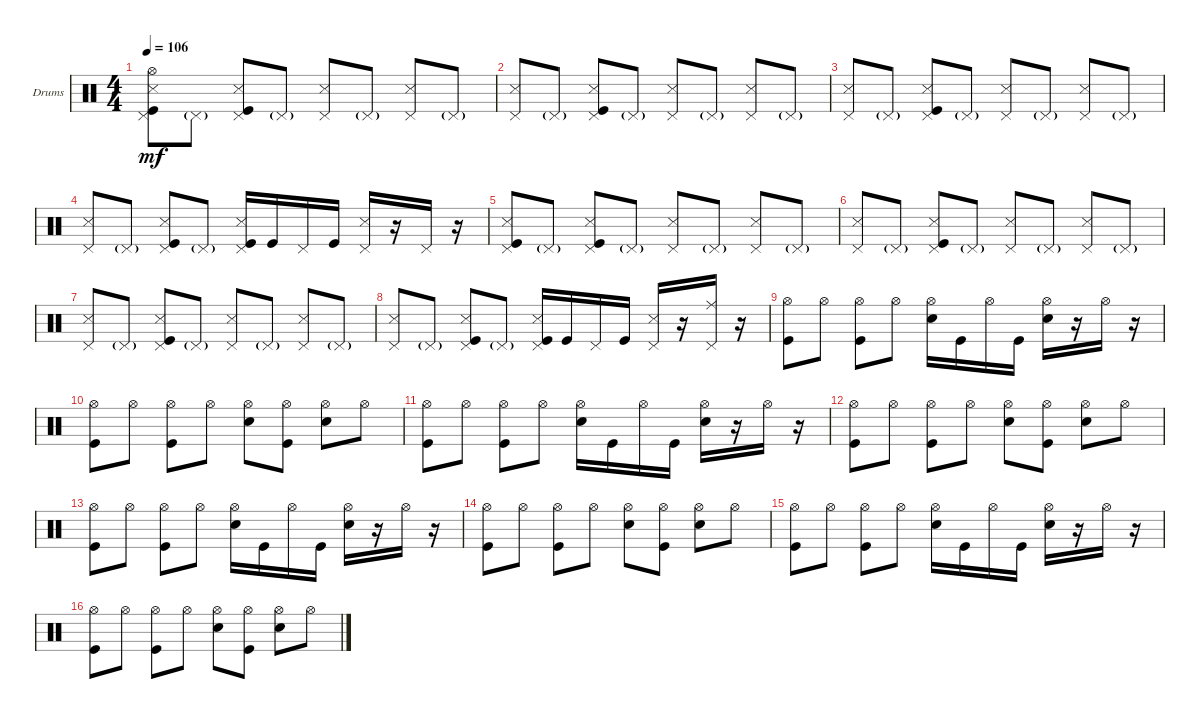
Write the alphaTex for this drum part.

\defaultSystemsLayout 4
\bracketExtendMode groupsimilarinstruments
\firstSystemTrackNameOrientation horizontal
\otherSystemsTrackNameOrientation horizontal
\track ("Drumkit" "Drums") {instrument percussion}
\staff {score}
\articulation defaults
\ts (4 4)
\tempo 106
\clef neutral
\ks c
("Snare (side stick) 3" "Kick (hit)" "Pedal Hi-Hat (hit)" "Hi-Hat (open)").8{dy mf} "Pedal Hi-Hat (hit)"{g}.8 ("Snare (side stick) 3" "Kick (hit)" "Pedal Hi-Hat (hit)").8 "Pedal Hi-Hat (hit)"{g}.8 ("Snare (side stick) 3" "Pedal Hi-Hat (hit)").8 "Pedal Hi-Hat (hit)"{g}.8 ("Snare (side stick) 3" "Pedal Hi-Hat (hit)").8 "Pedal Hi-Hat (hit)"{g}.8 |
("Snare (side stick) 3" "Pedal Hi-Hat (hit)").8 "Pedal Hi-Hat (hit)"{g}.8 ("Snare (side stick) 3" "Kick (hit)" "Pedal Hi-Hat (hit)").8 "Pedal Hi-Hat (hit)"{g}.8 ("Snare (side stick) 3" "Pedal Hi-Hat (hit)").8 "Pedal Hi-Hat (hit)"{g}.8 ("Snare (side stick) 3" "Pedal Hi-Hat (hit)").8 "Pedal Hi-Hat (hit)"{g}.8 |
("Snare (side stick) 3" "Pedal Hi-Hat (hit)").8 "Pedal Hi-Hat (hit)"{g}.8 ("Snare (side stick) 3" "Kick (hit)" "Pedal Hi-Hat (hit)").8 "Pedal Hi-Hat (hit)"{g}.8 ("Snare (side stick) 3" "Pedal Hi-Hat (hit)").8 "Pedal Hi-Hat (hit)"{g}.8 ("Snare (side stick) 3" "Pedal Hi-Hat (hit)").8 "Pedal Hi-Hat (hit)"{g}.8 |
("Snare (side stick) 3" "Pedal Hi-Hat (hit)").8 "Pedal Hi-Hat (hit)"{g}.8 ("Snare (side stick) 3" "Kick (hit)" "Pedal Hi-Hat (hit)").8 "Pedal Hi-Hat (hit)"{g}.8 ("Snare (side stick) 3" "Kick (hit)" "Pedal Hi-Hat (hit)").16 "Kick (hit)".16 "Pedal Hi-Hat (hit)".16 "Kick (hit)".16 ("Snare (side stick) 3" "Pedal Hi-Hat (hit)").16 r.16 "Pedal Hi-Hat (hit)".16 r.16 |
("Snare (side stick) 3" "Kick (hit)" "Pedal Hi-Hat (hit)").8 "Pedal Hi-Hat (hit)"{g}.8 ("Snare (side stick) 3" "Kick (hit)" "Pedal Hi-Hat (hit)").8 "Pedal Hi-Hat (hit)"{g}.8 ("Snare (side stick) 3" "Pedal Hi-Hat (hit)").8 "Pedal Hi-Hat (hit)"{g}.8 ("Snare (side stick) 3" "Pedal Hi-Hat (hit)").8 "Pedal Hi-Hat (hit)"{g}.8 |
("Snare (side stick) 3" "Pedal Hi-Hat (hit)").8 "Pedal Hi-Hat (hit)"{g}.8 ("Snare (side stick) 3" "Kick (hit)" "Pedal Hi-Hat (hit)").8 "Pedal Hi-Hat (hit)"{g}.8 ("Snare (side stick) 3" "Pedal Hi-Hat (hit)").8 "Pedal Hi-Hat (hit)"{g}.8 ("Snare (side stick) 3" "Pedal Hi-Hat (hit)").8 "Pedal Hi-Hat (hit)"{g}.8 |
("Snare (side stick) 3" "Pedal Hi-Hat (hit)").8 "Pedal Hi-Hat (hit)"{g}.8 ("Snare (side stick) 3" "Kick (hit)" "Pedal Hi-Hat (hit)").8 "Pedal Hi-Hat (hit)"{g}.8 ("Snare (side stick) 3" "Pedal Hi-Hat (hit)").8 "Pedal Hi-Hat (hit)"{g}.8 ("Snare (side stick) 3" "Pedal Hi-Hat (hit)").8 "Pedal Hi-Hat (hit)"{g}.8 |
("Snare (side stick) 3" "Pedal Hi-Hat (hit)").8 "Pedal Hi-Hat (hit)"{g}.8 ("Snare (side stick) 3" "Kick (hit)" "Pedal Hi-Hat (hit)").8 "Pedal Hi-Hat (hit)"{g}.8 ("Snare (side stick) 3" "Kick (hit)" "Pedal Hi-Hat (hit)").16 "Kick (hit)".16 "Pedal Hi-Hat (hit)".16 "Kick (hit)".16 ("Snare (side stick) 3" "Pedal Hi-Hat (hit)").16 r.16 ("Pedal Hi-Hat (hit)" "Ride (middle)").16 r.16 |
("Kick (hit)" "Hi-Hat (open)").8 "Hi-Hat (open)".8 ("Kick (hit)" "Hi-Hat (open)").8 "Hi-Hat (open)".8 ("Snare (hit) 2" "Hi-Hat (open)").16 "Kick (hit)".16 "Hi-Hat (open)".16 "Kick (hit)".16 ("Snare (hit) 2" "Hi-Hat (open)").16 r.16 "Hi-Hat (open)".16 r.16 |
("Kick (hit)" "Hi-Hat (open)").8 "Hi-Hat (open)".8 ("Kick (hit)" "Hi-Hat (open)").8 "Hi-Hat (open)".8 ("Snare (hit) 2" "Hi-Hat (open)").8 ("Kick (hit)" "Hi-Hat (open)").8 ("Snare (hit) 2" "Hi-Hat (open)").8 "Hi-Hat (open)".8 |
("Kick (hit)" "Hi-Hat (open)").8 "Hi-Hat (open)".8 ("Kick (hit)" "Hi-Hat (open)").8 "Hi-Hat (open)".8 ("Snare (hit) 2" "Hi-Hat (open)").16 "Kick (hit)".16 "Hi-Hat (open)".16 "Kick (hit)".16 ("Snare (hit) 2" "Hi-Hat (open)").16 r.16 "Hi-Hat (open)".16 r.16 |
("Kick (hit)" "Hi-Hat (open)").8 "Hi-Hat (open)".8 ("Kick (hit)" "Hi-Hat (open)").8 "Hi-Hat (open)".8 ("Snare (hit) 2" "Hi-Hat (open)").8 ("Kick (hit)" "Hi-Hat (open)").8 ("Snare (hit) 2" "Hi-Hat (open)").8 "Hi-Hat (open)".8 |
("Kick (hit)" "Hi-Hat (open)").8 "Hi-Hat (open)".8 ("Kick (hit)" "Hi-Hat (open)").8 "Hi-Hat (open)".8 ("Snare (hit) 2" "Hi-Hat (open)").16 "Kick (hit)".16 "Hi-Hat (open)".16 "Kick (hit)".16 ("Snare (hit) 2" "Hi-Hat (open)").16 r.16 "Hi-Hat (open)".16 r.16 |
("Kick (hit)" "Hi-Hat (open)").8 "Hi-Hat (open)".8 ("Kick (hit)" "Hi-Hat (open)").8 "Hi-Hat (open)".8 ("Snare (hit) 2" "Hi-Hat (open)").8 ("Kick (hit)" "Hi-Hat (open)").8 ("Snare (hit) 2" "Hi-Hat (open)").8 "Hi-Hat (open)".8 |
("Kick (hit)" "Hi-Hat (open)").8 "Hi-Hat (open)".8 ("Kick (hit)" "Hi-Hat (open)").8 "Hi-Hat (open)".8 ("Snare (hit) 2" "Hi-Hat (open)").16 "Kick (hit)".16 "Hi-Hat (open)".16 "Kick (hit)".16 ("Snare (hit) 2" "Hi-Hat (open)").16 r.16 "Hi-Hat (open)".16 r.16 |
("Kick (hit)" "Hi-Hat (open)").8 "Hi-Hat (open)".8 ("Kick (hit)" "Hi-Hat (open)").8 "Hi-Hat (open)".8 ("Snare (hit) 2" "Hi-Hat (open)").8 ("Kick (hit)" "Hi-Hat (open)").8 ("Snare (hit) 2" "Hi-Hat (open)").8 "Hi-Hat (open)".8
